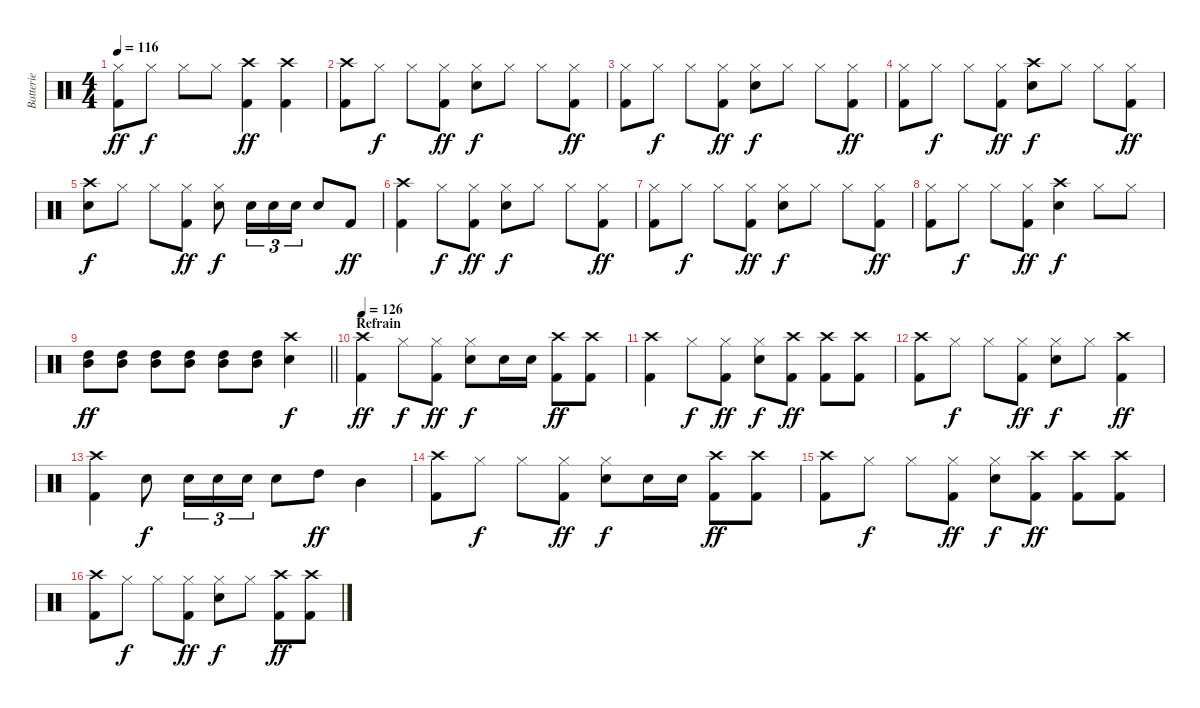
\track ("Batterie" "Batterie") {instrument percussion}
\staff {score}
\articulation defaults
\ts (4 4)
\tempo 116
\clef neutral
\ks c
("Hi-Hat (closed)" "Kick (hit) 2").8{dy ff} "Hi-Hat (closed)".8{dy f} "Hi-Hat (closed)".8 "Hi-Hat (closed)".8 ("Crash high (hit)" "Kick (hit) 2").4{dy ff} ("Crash high (hit)" "Kick (hit) 2").4 |
("Crash high (hit)" "Kick (hit) 2").8 "Hi-Hat (closed)".8{dy f} "Hi-Hat (closed)".8 ("Hi-Hat (closed)" "Kick (hit) 2").8{dy ff} ("Hi-Hat (closed)" "Snare (hit) 2").8{dy f} "Hi-Hat (closed)".8 "Hi-Hat (closed)".8 ("Hi-Hat (closed)" "Kick (hit) 2").8{dy ff} |
("Hi-Hat (closed)" "Kick (hit) 2").8 "Hi-Hat (closed)".8{dy f} "Hi-Hat (closed)".8 ("Hi-Hat (closed)" "Kick (hit) 2").8{dy ff} ("Hi-Hat (closed)" "Snare (hit) 2").8{dy f} "Hi-Hat (closed)".8 "Hi-Hat (closed)".8 ("Hi-Hat (closed)" "Kick (hit) 2").8{dy ff} |
("Hi-Hat (closed)" "Kick (hit) 2").8 "Hi-Hat (closed)".8{dy f} "Hi-Hat (closed)".8 ("Hi-Hat (closed)" "Kick (hit) 2").8{dy ff} ("Crash high (hit)" "Snare (hit) 2").8{dy f} "Hi-Hat (closed)".8 "Hi-Hat (closed)".8 ("Hi-Hat (closed)" "Kick (hit) 2").8{dy ff} |
("Crash high (hit)" "Snare (hit) 2").8{dy f} "Hi-Hat (closed)".8 "Hi-Hat (closed)".8 ("Hi-Hat (closed)" "Kick (hit) 2").8{dy ff} ("Hi-Hat (closed)" "Snare (hit) 2").8{dy f} "Snare (hit) 2".16{tu (3 2)} "Snare (hit) 2".16{tu (3 2)} "Snare (hit) 2".16{tu (3 2)} "Snare (hit) 2".8 "Kick (hit) 2".8{dy ff} |
("Crash high (hit)" "Kick (hit) 2").4 "Hi-Hat (closed)".8{dy f} ("Hi-Hat (closed)" "Kick (hit) 2").8{dy ff} ("Hi-Hat (closed)" "Snare (hit) 2").8{dy f} "Hi-Hat (closed)".8 "Hi-Hat (closed)".8 ("Hi-Hat (closed)" "Kick (hit) 2").8{dy ff} |
("Hi-Hat (closed)" "Kick (hit) 2").8 "Hi-Hat (closed)".8{dy f} "Hi-Hat (closed)".8 ("Hi-Hat (closed)" "Kick (hit) 2").8{dy ff} ("Hi-Hat (closed)" "Snare (hit) 2").8{dy f} "Hi-Hat (closed)".8 "Hi-Hat (closed)".8 ("Hi-Hat (closed)" "Kick (hit) 2").8{dy ff} |
("Hi-Hat (closed)" "Kick (hit) 2").8 "Hi-Hat (closed)".8{dy f} "Hi-Hat (closed)".8 ("Hi-Hat (closed)" "Kick (hit) 2").8{dy ff} ("Crash high (hit)" "Snare (hit) 2").4{dy f} "Hi-Hat (closed)".8 "Hi-Hat (closed)".8 |
\barLineRight lightlight
("Mid Tom (hit)" "High Tom (hit)").8{dy ff} ("Mid Tom (hit)" "High Tom (hit)").8 ("Mid Tom (hit)" "High Tom (hit)").8 ("Mid Tom (hit)" "High Tom (hit)").8 ("Mid Tom (hit)" "High Tom (hit)").8 ("Mid Tom (hit)" "High Tom (hit)").8 ("Crash high (hit)" "Snare (hit) 2").4{dy f} |
\section ("" "Refrain")
\tempo 126
("Crash high (hit)" "Kick (hit) 2").4{dy ff} "Hi-Hat (closed)".8{dy f} ("Hi-Hat (closed)" "Kick (hit) 2").8{dy ff} ("Hi-Hat (closed)" "Snare (hit) 2").8{dy f} "Snare (hit) 2".16 "Snare (hit) 2".16 ("Crash high (hit)" "Kick (hit) 2").8{dy ff} ("Crash high (hit)" "Kick (hit) 2").8 |
("Crash high (hit)" "Kick (hit) 2").4 "Hi-Hat (closed)".8{dy f} ("Hi-Hat (closed)" "Kick (hit) 2").8{dy ff} ("Hi-Hat (closed)" "Snare (hit) 2").8{dy f} ("Crash high (hit)" "Kick (hit) 2").8{dy ff} ("Crash high (hit)" "Kick (hit) 2").8 ("Crash high (hit)" "Kick (hit) 2").8 |
("Crash high (hit)" "Kick (hit) 2").8 "Hi-Hat (closed)".8{dy f} "Hi-Hat (closed)".8 ("Hi-Hat (closed)" "Kick (hit) 2").8{dy ff} ("Hi-Hat (closed)" "Snare (hit) 2").8{dy f} "Hi-Hat (closed)".8 ("Crash high (hit)" "Kick (hit) 2").4{dy ff} |
("Crash high (hit)" "Kick (hit) 2").4 "Snare (hit) 2".8{dy f} "Snare (hit) 2".16{tu (3 2)} "Snare (hit) 2".16{tu (3 2)} "Snare (hit) 2".16{tu (3 2)} "Snare (hit) 2".8 "High Tom (hit)".8{dy ff} "Mid Tom (hit)".4 |
("Crash high (hit)" "Kick (hit) 2").8 "Hi-Hat (closed)".8{dy f} "Hi-Hat (closed)".8 ("Hi-Hat (closed)" "Kick (hit) 2").8{dy ff} ("Hi-Hat (closed)" "Snare (hit) 2").8{dy f} "Snare (hit) 2".16 "Snare (hit) 2".16 ("Crash high (hit)" "Kick (hit) 2").8{dy ff} ("Crash high (hit)" "Kick (hit) 2").8 |
("Crash high (hit)" "Kick (hit) 2").8 "Hi-Hat (closed)".8{dy f} "Hi-Hat (closed)".8 ("Hi-Hat (closed)" "Kick (hit) 2").8{dy ff} ("Hi-Hat (closed)" "Snare (hit) 2").8{dy f} ("Crash high (hit)" "Kick (hit) 2").8{dy ff} ("Crash high (hit)" "Kick (hit) 2").8 ("Crash high (hit)" "Kick (hit) 2").8 |
("Crash high (hit)" "Kick (hit) 2").8 "Hi-Hat (closed)".8{dy f} "Hi-Hat (closed)".8 ("Hi-Hat (closed)" "Kick (hit) 2").8{dy ff} ("Hi-Hat (closed)" "Snare (hit) 2").8{dy f} "Hi-Hat (closed)".8 ("Crash high (hit)" "Kick (hit) 2").8{dy ff} ("Crash high (hit)" "Kick (hit) 2").8
